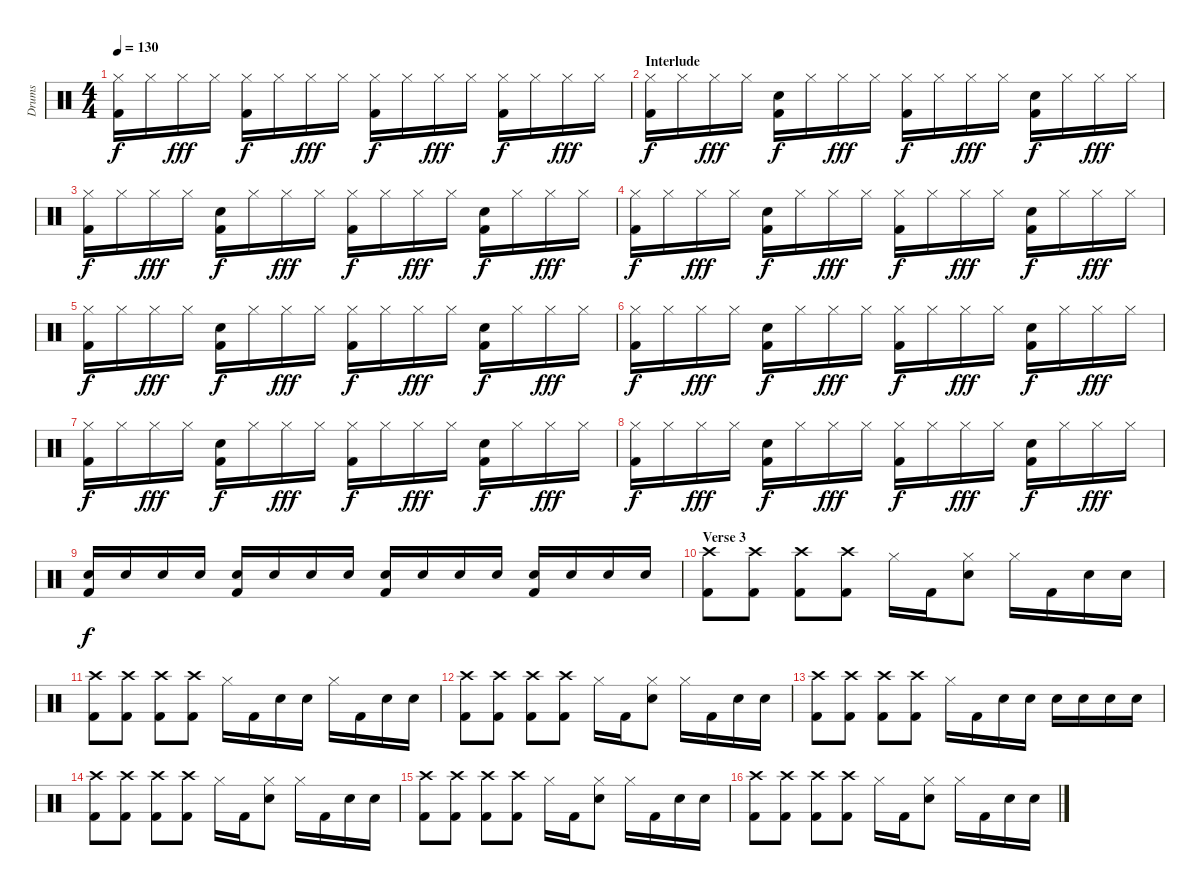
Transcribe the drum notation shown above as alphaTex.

\track ("Drums" "Drums") {instrument percussion}
\staff {score}
\articulation defaults
\ts (4 4)
\tempo 130
\clef neutral
\ks c
("Hi-Hat (closed)" "Kick (hit) 2").16{dy f} "Hi-Hat (closed)".16 "Hi-Hat (closed)".16{dy fff} "Hi-Hat (closed)".16 ("Hi-Hat (closed)" "Kick (hit) 2").16{dy f} "Hi-Hat (closed)".16 "Hi-Hat (closed)".16{dy fff} "Hi-Hat (closed)".16 ("Hi-Hat (closed)" "Kick (hit) 2").16{dy f} "Hi-Hat (closed)".16 "Hi-Hat (closed)".16{dy fff} "Hi-Hat (closed)".16 ("Hi-Hat (closed)" "Kick (hit) 2").16{dy f} "Hi-Hat (closed)".16 "Hi-Hat (closed)".16{dy fff} "Hi-Hat (closed)".16 |
\section ("" "Interlude")
("Hi-Hat (closed)" "Kick (hit) 2").16{dy f} "Hi-Hat (closed)".16 "Hi-Hat (closed)".16{dy fff} "Hi-Hat (closed)".16 ("Electric Snare (hit)" "Kick (hit) 2").16{dy f} "Hi-Hat (closed)".16 "Hi-Hat (closed)".16{dy fff} "Hi-Hat (closed)".16 ("Hi-Hat (closed)" "Kick (hit) 2").16{dy f} "Hi-Hat (closed)".16 "Hi-Hat (closed)".16{dy fff} "Hi-Hat (closed)".16 ("Electric Snare (hit)" "Kick (hit) 2").16{dy f} "Hi-Hat (closed)".16 "Hi-Hat (closed)".16{dy fff} "Hi-Hat (closed)".16 |
("Hi-Hat (closed)" "Kick (hit) 2").16{dy f} "Hi-Hat (closed)".16 "Hi-Hat (closed)".16{dy fff} "Hi-Hat (closed)".16 ("Electric Snare (hit)" "Kick (hit) 2").16{dy f} "Hi-Hat (closed)".16 "Hi-Hat (closed)".16{dy fff} "Hi-Hat (closed)".16 ("Hi-Hat (closed)" "Kick (hit) 2").16{dy f} "Hi-Hat (closed)".16 "Hi-Hat (closed)".16{dy fff} "Hi-Hat (closed)".16 ("Electric Snare (hit)" "Kick (hit) 2").16{dy f} "Hi-Hat (closed)".16 "Hi-Hat (closed)".16{dy fff} "Hi-Hat (closed)".16 |
("Hi-Hat (closed)" "Kick (hit) 2").16{dy f} "Hi-Hat (closed)".16 "Hi-Hat (closed)".16{dy fff} "Hi-Hat (closed)".16 ("Electric Snare (hit)" "Kick (hit) 2").16{dy f} "Hi-Hat (closed)".16 "Hi-Hat (closed)".16{dy fff} "Hi-Hat (closed)".16 ("Hi-Hat (closed)" "Kick (hit) 2").16{dy f} "Hi-Hat (closed)".16 "Hi-Hat (closed)".16{dy fff} "Hi-Hat (closed)".16 ("Electric Snare (hit)" "Kick (hit) 2").16{dy f} "Hi-Hat (closed)".16 "Hi-Hat (closed)".16{dy fff} "Hi-Hat (closed)".16 |
("Hi-Hat (closed)" "Kick (hit) 2").16{dy f} "Hi-Hat (closed)".16 "Hi-Hat (closed)".16{dy fff} "Hi-Hat (closed)".16 ("Electric Snare (hit)" "Kick (hit) 2").16{dy f} "Hi-Hat (closed)".16 "Hi-Hat (closed)".16{dy fff} "Hi-Hat (closed)".16 ("Hi-Hat (closed)" "Kick (hit) 2").16{dy f} "Hi-Hat (closed)".16 "Hi-Hat (closed)".16{dy fff} "Hi-Hat (closed)".16 ("Electric Snare (hit)" "Kick (hit) 2").16{dy f} "Hi-Hat (closed)".16 "Hi-Hat (closed)".16{dy fff} "Hi-Hat (closed)".16 |
("Hi-Hat (closed)" "Kick (hit) 2").16{dy f} "Hi-Hat (closed)".16 "Hi-Hat (closed)".16{dy fff} "Hi-Hat (closed)".16 ("Electric Snare (hit)" "Kick (hit) 2").16{dy f} "Hi-Hat (closed)".16 "Hi-Hat (closed)".16{dy fff} "Hi-Hat (closed)".16 ("Hi-Hat (closed)" "Kick (hit) 2").16{dy f} "Hi-Hat (closed)".16 "Hi-Hat (closed)".16{dy fff} "Hi-Hat (closed)".16 ("Electric Snare (hit)" "Kick (hit) 2").16{dy f} "Hi-Hat (closed)".16 "Hi-Hat (closed)".16{dy fff} "Hi-Hat (closed)".16 |
("Hi-Hat (closed)" "Kick (hit) 2").16{dy f} "Hi-Hat (closed)".16 "Hi-Hat (closed)".16{dy fff} "Hi-Hat (closed)".16 ("Electric Snare (hit)" "Kick (hit) 2").16{dy f} "Hi-Hat (closed)".16 "Hi-Hat (closed)".16{dy fff} "Hi-Hat (closed)".16 ("Hi-Hat (closed)" "Kick (hit) 2").16{dy f} "Hi-Hat (closed)".16 "Hi-Hat (closed)".16{dy fff} "Hi-Hat (closed)".16 ("Electric Snare (hit)" "Kick (hit) 2").16{dy f} "Hi-Hat (closed)".16 "Hi-Hat (closed)".16{dy fff} "Hi-Hat (closed)".16 |
("Hi-Hat (closed)" "Kick (hit) 2").16{dy f} "Hi-Hat (closed)".16 "Hi-Hat (closed)".16{dy fff} "Hi-Hat (closed)".16 ("Electric Snare (hit)" "Kick (hit) 2").16{dy f} "Hi-Hat (closed)".16 "Hi-Hat (closed)".16{dy fff} "Hi-Hat (closed)".16 ("Hi-Hat (closed)" "Kick (hit) 2").16{dy f} "Hi-Hat (closed)".16 "Hi-Hat (closed)".16{dy fff} "Hi-Hat (closed)".16 ("Electric Snare (hit)" "Kick (hit) 2").16{dy f} "Hi-Hat (closed)".16 "Hi-Hat (closed)".16{dy fff} "Hi-Hat (closed)".16 |
("Electric Snare (hit)" "Kick (hit) 2").16{dy f} "Electric Snare (hit)".16 "Electric Snare (hit)".16 "Electric Snare (hit)".16 ("Electric Snare (hit)" "Kick (hit) 2").16 "Electric Snare (hit)".16 "Electric Snare (hit)".16 "Electric Snare (hit)".16 ("Electric Snare (hit)" "Kick (hit) 2").16 "Electric Snare (hit)".16 "Electric Snare (hit)".16 "Electric Snare (hit)".16 ("Electric Snare (hit)" "Kick (hit) 2").16 "Electric Snare (hit)".16 "Electric Snare (hit)".16 "Electric Snare (hit)".16 |
\section ("" "Verse 3")
("Crash high (hit)" "Kick (hit) 2").8 ("Crash high (hit)" "Kick (hit) 2").8 ("Crash high (hit)" "Kick (hit) 2").8 ("Crash high (hit)" "Kick (hit) 2").8 "Hi-Hat (closed)".16 "Kick (hit) 2".16 ("Hi-Hat (closed)" "Electric Snare (hit)").8 "Hi-Hat (closed)".16 "Kick (hit) 2".16 "Electric Snare (hit)".16 "Electric Snare (hit)".16 |
("Crash high (hit)" "Kick (hit) 2").8 ("Crash high (hit)" "Kick (hit) 2").8 ("Crash high (hit)" "Kick (hit) 2").8 ("Crash high (hit)" "Kick (hit) 2").8 "Hi-Hat (closed)".16 "Kick (hit) 2".16 "Electric Snare (hit)".16 "Electric Snare (hit)".16 "Hi-Hat (closed)".16 "Kick (hit) 2".16 "Electric Snare (hit)".16 "Electric Snare (hit)".16 |
("Crash high (hit)" "Kick (hit) 2").8 ("Crash high (hit)" "Kick (hit) 2").8 ("Crash high (hit)" "Kick (hit) 2").8 ("Crash high (hit)" "Kick (hit) 2").8 "Hi-Hat (closed)".16 "Kick (hit) 2".16 ("Hi-Hat (closed)" "Electric Snare (hit)").8 "Hi-Hat (closed)".16 "Kick (hit) 2".16 "Electric Snare (hit)".16 "Electric Snare (hit)".16 |
("Crash high (hit)" "Kick (hit) 2").8 ("Crash high (hit)" "Kick (hit) 2").8 ("Crash high (hit)" "Kick (hit) 2").8 ("Crash high (hit)" "Kick (hit) 2").8 "Hi-Hat (closed)".16 "Kick (hit) 2".16 "Electric Snare (hit)".16 "Electric Snare (hit)".16 "Electric Snare (hit)".16 "Electric Snare (hit)".16 "Electric Snare (hit)".16 "Electric Snare (hit)".16 |
("Crash high (hit)" "Kick (hit) 2").8 ("Crash high (hit)" "Kick (hit) 2").8 ("Crash high (hit)" "Kick (hit) 2").8 ("Crash high (hit)" "Kick (hit) 2").8 "Hi-Hat (closed)".16 "Kick (hit) 2".16 ("Hi-Hat (closed)" "Electric Snare (hit)").8 "Hi-Hat (closed)".16 "Kick (hit) 2".16 "Electric Snare (hit)".16 "Electric Snare (hit)".16 |
("Crash high (hit)" "Kick (hit) 2").8 ("Crash high (hit)" "Kick (hit) 2").8 ("Crash high (hit)" "Kick (hit) 2").8 ("Crash high (hit)" "Kick (hit) 2").8 "Hi-Hat (closed)".16 "Kick (hit) 2".16 ("Hi-Hat (closed)" "Electric Snare (hit)").8 "Hi-Hat (closed)".16 "Kick (hit) 2".16 "Electric Snare (hit)".16 "Electric Snare (hit)".16 |
("Crash high (hit)" "Kick (hit) 2").8 ("Crash high (hit)" "Kick (hit) 2").8 ("Crash high (hit)" "Kick (hit) 2").8 ("Crash high (hit)" "Kick (hit) 2").8 "Hi-Hat (closed)".16 "Kick (hit) 2".16 ("Hi-Hat (closed)" "Electric Snare (hit)").8 "Hi-Hat (closed)".16 "Kick (hit) 2".16 "Electric Snare (hit)".16 "Electric Snare (hit)".16
